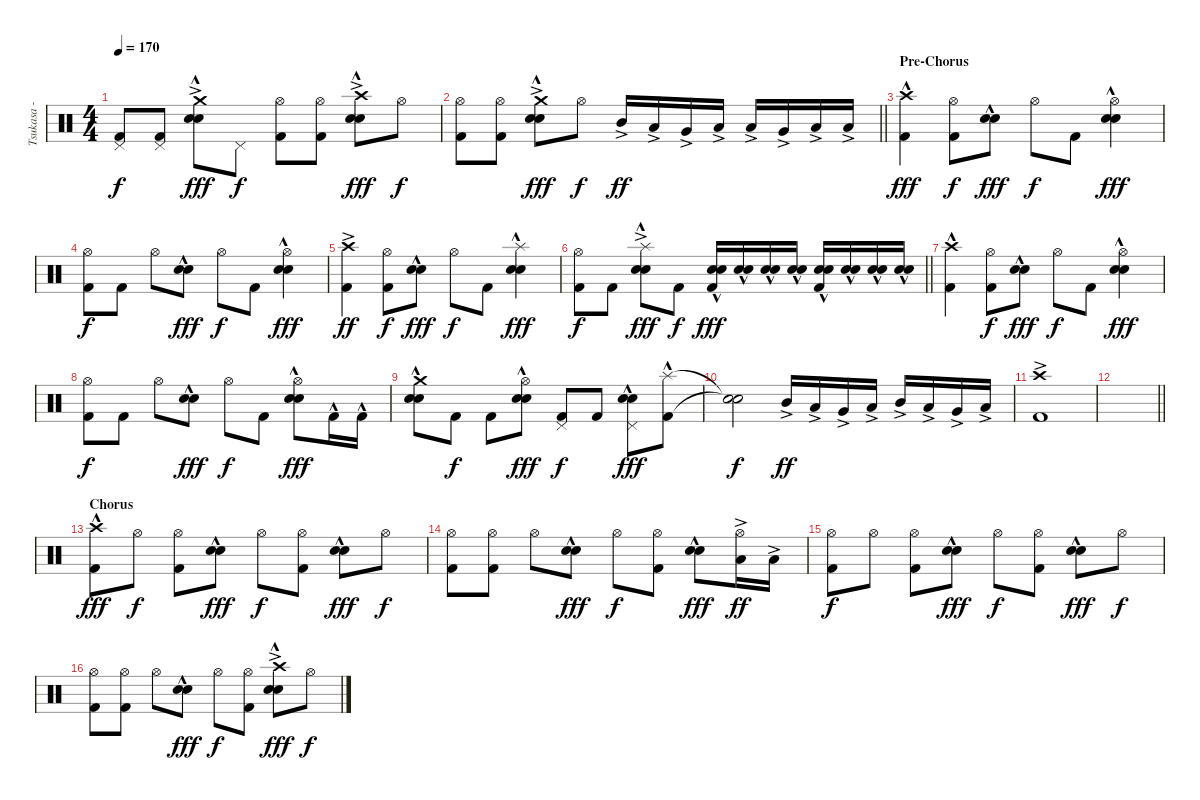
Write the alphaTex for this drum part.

\track ("Tsukasa - Drums" "Tsukasa - ") {instrument percussion}
\staff {score}
\articulation defaults
\ts (4 4)
\tempo 170
\clef neutral
\ks c
("Pedal Hi-Hat (hit)" "Kick (hit) 2").8{dy f} ("Pedal Hi-Hat (hit)" "Kick (hit) 2").8 ("Crash medium (hit)"{ac} "Electric Snare (hit)"{hac} "Snare (hit) 2").8{dy fff} "Pedal Hi-Hat (hit)".8{dy f} ("Hi-Hat (open)" "Kick (hit) 2").8 ("Hi-Hat (open)" "Kick (hit) 2").8 ("Crash high (hit)"{ac} "Electric Snare (hit)"{hac} "Snare (hit) 2").8{dy fff} "Hi-Hat (open)".8{dy f} |
\barLineRight lightlight
("Hi-Hat (open)" "Kick (hit) 2").8 ("Hi-Hat (open)" "Kick (hit) 2").8 ("Crash medium (hit)"{ac} "Electric Snare (hit)"{hac} "Snare (hit) 2").8{dy fff} "Hi-Hat (open)".8{dy f} "Mid Tom (hit)"{ac}.16{dy ff} "Low Tom (hit)"{ac}.16 "Very Low Tom (hit)"{ac}.16 "Low Floor Tom (hit)"{ac}.16 "Low Tom (hit)"{ac}.16 "Very Low Tom (hit)"{ac}.16 "Low Floor Tom (hit)"{ac}.16 "Low Floor Tom (hit)"{ac}.16 |
\section ("" "Pre-Chorus")
("Crash high (hit)"{hac} "Kick (hit) 2").4{dy fff} ("Hi-Hat (open)" "Kick (hit) 2").8{dy f} ("Electric Snare (hit)"{hac} "Snare (hit) 2").8{dy fff} "Hi-Hat (open)".8{dy f} "Kick (hit) 2".8 ("Hi-Hat (open)" "Electric Snare (hit)"{hac} "Snare (hit) 2").4{dy fff} |
("Hi-Hat (open)" "Kick (hit) 2").8{dy f} "Kick (hit) 2".8 "Hi-Hat (open)".8 ("Electric Snare (hit)"{hac} "Snare (hit) 2").8{dy fff} "Hi-Hat (open)".8{dy f} "Kick (hit) 2".8 ("Hi-Hat (open)" "Electric Snare (hit)"{hac} "Snare (hit) 2").4{dy fff} |
("Crash high (hit)"{ac} "Kick (hit) 2").4{dy ff} ("Hi-Hat (open)" "Kick (hit) 2").8{dy f} ("Electric Snare (hit)"{hac} "Snare (hit) 2").8{dy fff} "Hi-Hat (open)".8{dy f} "Kick (hit) 2".8 ("Splash (hit)"{hac} "Electric Snare (hit)"{hac} "Snare (hit) 2").4{dy fff} |
\barLineRight lightlight
("Hi-Hat (open)" "Kick (hit) 2").8{dy f} "Kick (hit) 2".8 ("Splash (hit)"{ac} "Electric Snare (hit)"{hac} "Snare (hit) 2").8{dy fff} "Kick (hit) 2".8{dy f} ("Electric Snare (hit)"{hac} "Snare (hit) 2" "Kick (hit) 2").16{dy fff} ("Electric Snare (hit)"{hac} "Snare (hit) 2").16 ("Electric Snare (hit)"{hac} "Snare (hit) 2").16 ("Electric Snare (hit)"{hac} "Snare (hit) 2").16 ("Electric Snare (hit)"{hac} "Snare (hit) 2" "Kick (hit) 2").16 ("Electric Snare (hit)"{hac} "Snare (hit) 2").16 ("Electric Snare (hit)"{hac} "Snare (hit) 2").16 ("Electric Snare (hit)"{hac} "Snare (hit) 2").16 |
("Crash high (hit)"{hac} "Kick (hit) 2").4 ("Hi-Hat (open)" "Kick (hit) 2").8{dy f} ("Electric Snare (hit)"{hac} "Snare (hit) 2").8{dy fff} "Hi-Hat (open)".8{dy f} "Kick (hit) 2".8 ("Hi-Hat (open)" "Electric Snare (hit)"{hac} "Snare (hit) 2").4{dy fff} |
("Hi-Hat (open)" "Kick (hit) 2").8{dy f} "Kick (hit) 2".8 "Hi-Hat (open)".8 ("Electric Snare (hit)"{hac} "Snare (hit) 2").8{dy fff} "Hi-Hat (open)".8{dy f} "Kick (hit) 2".8 ("Hi-Hat (open)" "Electric Snare (hit)"{hac} "Snare (hit) 2").8{dy fff} "Kick (hit) 2"{hac}.16 "Kick (hit) 2"{hac}.16 |
("Crash medium (hit)" "Electric Snare (hit)"{hac} "Snare (hit) 2").8 "Kick (hit) 2".8{dy f} "Kick (hit) 2".8 ("Hi-Hat (open)" "Electric Snare (hit)"{hac} "Snare (hit) 2").8{dy fff} ("Pedal Hi-Hat (hit)" "Kick (hit) 2").8{dy f} "Kick (hit) 2".8 ("Pedal Hi-Hat (hit)" "Electric Snare (hit)"{hac} "Snare (hit) 2").8{dy fff} ("Splash (hit)"{hac} "Kick (hit) 2").8 |
("Snare (hit)"{t} "Snare (hit)"{t}).2{dy f} "Mid Tom (hit)"{ac}.16{dy ff} "Low Tom (hit)"{ac}.16 "Very Low Tom (hit)"{ac}.16 "Low Floor Tom (hit)"{ac}.16 "Mid Tom (hit)"{ac}.16 "Low Tom (hit)"{ac}.16 "Very Low Tom (hit)"{ac}.16 "Low Floor Tom (hit)"{ac}.16 |
("Crash high (hit)"{ac} "Kick (hit) 2").1 |
\barLineRight lightlight
|
\section ("" "Chorus")
("Crash high (hit)"{hac} "Kick (hit) 2").8{dy fff} "Hi-Hat (open)".8{dy f} ("Hi-Hat (open)" "Kick (hit) 2").8 ("Electric Snare (hit)"{hac} "Snare (hit) 2").8{dy fff} "Hi-Hat (open)".8{dy f} ("Hi-Hat (open)" "Kick (hit) 2").8 ("Electric Snare (hit)"{hac} "Snare (hit) 2").8{dy fff} "Hi-Hat (open)".8{dy f} |
("Hi-Hat (open)" "Kick (hit) 2").8 ("Hi-Hat (open)" "Kick (hit) 2").8 "Hi-Hat (open)".8 ("Electric Snare (hit)"{hac} "Snare (hit) 2").8{dy fff} "Hi-Hat (open)".8{dy f} ("Hi-Hat (open)" "Kick (hit) 2").8 ("Electric Snare (hit)"{hac} "Snare (hit) 2").8{dy fff} ("Hi-Hat (open)" "Low Tom (hit)"{ac}).16{dy ff} "Low Tom (hit)"{ac}.16 |
("Hi-Hat (open)" "Kick (hit) 2").8{dy f} "Hi-Hat (open)".8 ("Hi-Hat (open)" "Kick (hit) 2").8 ("Electric Snare (hit)"{hac} "Snare (hit) 2").8{dy fff} "Hi-Hat (open)".8{dy f} ("Hi-Hat (open)" "Kick (hit) 2").8 ("Electric Snare (hit)"{hac} "Snare (hit) 2").8{dy fff} "Hi-Hat (open)".8{dy f} |
("Hi-Hat (open)" "Kick (hit) 2").8 ("Hi-Hat (open)" "Kick (hit) 2").8 "Hi-Hat (open)".8 ("Electric Snare (hit)"{hac} "Snare (hit) 2").8{dy fff} "Hi-Hat (open)".8{dy f} ("Hi-Hat (open)" "Kick (hit) 2").8 ("Crash high (hit)"{ac} "Electric Snare (hit)"{hac} "Snare (hit) 2").8{dy fff} "Hi-Hat (open)".8{dy f}
